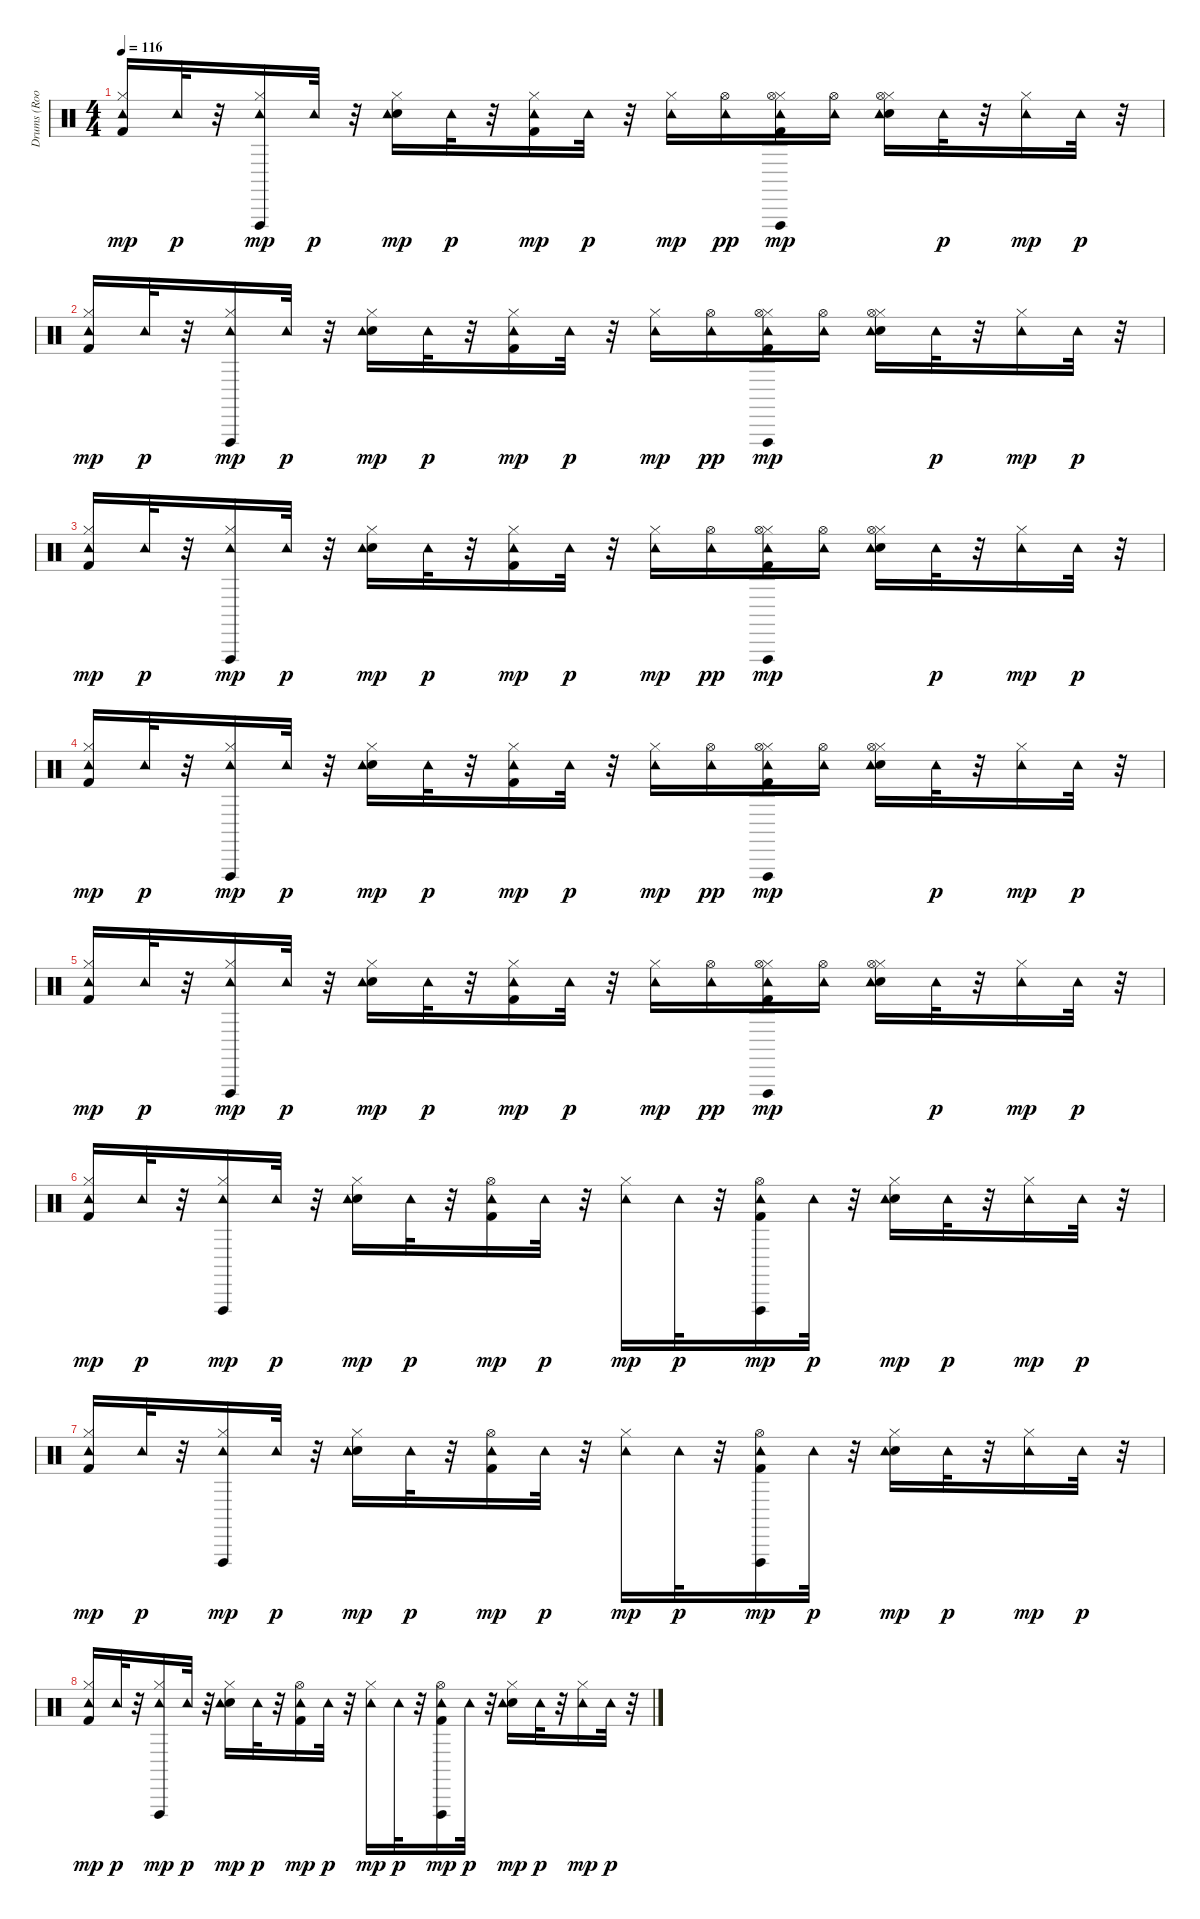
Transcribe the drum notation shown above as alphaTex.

\track ("Drums (Room Kit)    " "Drums (Roo") {instrument percussion}
\staff {score}
\articulation defaults
\ts (4 4)
\tempo 116
\clef neutral
\ks c
("Hi-Hat (closed)" "Kick (hit) 2" "Tambourine (hit)").16{dy mp} "Tambourine (hit)".32{dy p} r.32 ("Hi-Hat (closed)" "Tambourine (hit)" "Vibraslap (hit)").16{dy mp} "Tambourine (hit)".32{dy p} r.32 ("Hi-Hat (closed)" "Snare (hit) 2" "Tambourine (hit)").16{dy mp} "Tambourine (hit)".32{dy p} r.32 ("Hi-Hat (closed)" "Kick (hit) 2" "Tambourine (hit)").16{dy mp} "Tambourine (hit)".32{dy p} r.32 ("Hi-Hat (closed)" "Tambourine (hit)").16{dy mp} ("Tambourine (hit)" "Hi-Hat (open)").16{dy pp} ("Hi-Hat (closed)" "Kick (hit) 2" "Tambourine (hit)" "Hi-Hat (open)" "Vibraslap (hit)").16{dy mp} ("Tambourine (hit)" "Hi-Hat (open)").16 ("Hi-Hat (closed)" "Snare (hit) 2" "Tambourine (hit)" "Hi-Hat (open)").16 "Tambourine (hit)".32{dy p} r.32 ("Hi-Hat (closed)" "Tambourine (hit)").16{dy mp} "Tambourine (hit)".32{dy p} r.32 |
("Kick (hit) 2" "Hi-Hat (closed)" "Tambourine (hit)").16{dy mp} "Tambourine (hit)".32{dy p} r.32 ("Hi-Hat (closed)" "Tambourine (hit)" "Vibraslap (hit)").16{dy mp} "Tambourine (hit)".32{dy p} r.32 ("Snare (hit) 2" "Hi-Hat (closed)" "Tambourine (hit)").16{dy mp} "Tambourine (hit)".32{dy p} r.32 ("Kick (hit) 2" "Hi-Hat (closed)" "Tambourine (hit)").16{dy mp} "Tambourine (hit)".32{dy p} r.32 ("Hi-Hat (closed)" "Tambourine (hit)").16{dy mp} ("Tambourine (hit)" "Hi-Hat (open)").16{dy pp} ("Kick (hit) 2" "Hi-Hat (closed)" "Tambourine (hit)" "Hi-Hat (open)" "Vibraslap (hit)").16{dy mp} ("Tambourine (hit)" "Hi-Hat (open)").16 ("Snare (hit) 2" "Hi-Hat (closed)" "Tambourine (hit)" "Hi-Hat (open)").16 "Tambourine (hit)".32{dy p} r.32 ("Hi-Hat (closed)" "Tambourine (hit)").16{dy mp} "Tambourine (hit)".32{dy p} r.32 |
("Hi-Hat (closed)" "Kick (hit) 2" "Tambourine (hit)").16{dy mp} "Tambourine (hit)".32{dy p} r.32 ("Hi-Hat (closed)" "Tambourine (hit)" "Vibraslap (hit)").16{dy mp} "Tambourine (hit)".32{dy p} r.32 ("Hi-Hat (closed)" "Snare (hit) 2" "Tambourine (hit)").16{dy mp} "Tambourine (hit)".32{dy p} r.32 ("Hi-Hat (closed)" "Kick (hit) 2" "Tambourine (hit)").16{dy mp} "Tambourine (hit)".32{dy p} r.32 ("Hi-Hat (closed)" "Tambourine (hit)").16{dy mp} ("Tambourine (hit)" "Hi-Hat (open)").16{dy pp} ("Hi-Hat (closed)" "Kick (hit) 2" "Tambourine (hit)" "Hi-Hat (open)" "Vibraslap (hit)").16{dy mp} ("Tambourine (hit)" "Hi-Hat (open)").16 ("Hi-Hat (closed)" "Snare (hit) 2" "Tambourine (hit)" "Hi-Hat (open)").16 "Tambourine (hit)".32{dy p} r.32 ("Hi-Hat (closed)" "Tambourine (hit)").16{dy mp} "Tambourine (hit)".32{dy p} r.32 |
("Kick (hit) 2" "Hi-Hat (closed)" "Tambourine (hit)").16{dy mp} "Tambourine (hit)".32{dy p} r.32 ("Hi-Hat (closed)" "Tambourine (hit)" "Vibraslap (hit)").16{dy mp} "Tambourine (hit)".32{dy p} r.32 ("Snare (hit) 2" "Hi-Hat (closed)" "Tambourine (hit)").16{dy mp} "Tambourine (hit)".32{dy p} r.32 ("Kick (hit) 2" "Hi-Hat (closed)" "Tambourine (hit)").16{dy mp} "Tambourine (hit)".32{dy p} r.32 ("Hi-Hat (closed)" "Tambourine (hit)").16{dy mp} ("Tambourine (hit)" "Hi-Hat (open)").16{dy pp} ("Kick (hit) 2" "Hi-Hat (closed)" "Tambourine (hit)" "Hi-Hat (open)" "Vibraslap (hit)").16{dy mp} ("Tambourine (hit)" "Hi-Hat (open)").16 ("Snare (hit) 2" "Hi-Hat (closed)" "Tambourine (hit)" "Hi-Hat (open)").16 "Tambourine (hit)".32{dy p} r.32 ("Hi-Hat (closed)" "Tambourine (hit)").16{dy mp} "Tambourine (hit)".32{dy p} r.32 |
("Hi-Hat (closed)" "Kick (hit) 2" "Tambourine (hit)").16{dy mp} "Tambourine (hit)".32{dy p} r.32 ("Hi-Hat (closed)" "Tambourine (hit)" "Vibraslap (hit)").16{dy mp} "Tambourine (hit)".32{dy p} r.32 ("Hi-Hat (closed)" "Snare (hit) 2" "Tambourine (hit)").16{dy mp} "Tambourine (hit)".32{dy p} r.32 ("Hi-Hat (closed)" "Kick (hit) 2" "Tambourine (hit)").16{dy mp} "Tambourine (hit)".32{dy p} r.32 ("Hi-Hat (closed)" "Tambourine (hit)").16{dy mp} ("Tambourine (hit)" "Hi-Hat (open)").16{dy pp} ("Hi-Hat (closed)" "Kick (hit) 2" "Tambourine (hit)" "Hi-Hat (open)" "Vibraslap (hit)").16{dy mp} ("Tambourine (hit)" "Hi-Hat (open)").16 ("Hi-Hat (closed)" "Snare (hit) 2" "Tambourine (hit)" "Hi-Hat (open)").16 "Tambourine (hit)".32{dy p} r.32 ("Hi-Hat (closed)" "Tambourine (hit)").16{dy mp} "Tambourine (hit)".32{dy p} r.32 |
("Kick (hit) 2" "Hi-Hat (closed)" "Tambourine (hit)").16{dy mp} "Tambourine (hit)".32{dy p} r.32 ("Hi-Hat (closed)" "Tambourine (hit)" "Vibraslap (hit)").16{dy mp} "Tambourine (hit)".32{dy p} r.32 ("Snare (hit) 2" "Hi-Hat (closed)" "Tambourine (hit)").16{dy mp} "Tambourine (hit)".32{dy p} r.32 ("Kick (hit) 2" "Tambourine (hit)" "Hi-Hat (open)").16{dy mp} "Tambourine (hit)".32{dy p} r.32 ("Hi-Hat (closed)" "Tambourine (hit)").16{dy mp} "Tambourine (hit)".32{dy p} r.32 ("Kick (hit) 2" "Tambourine (hit)" "Vibraslap (hit)" "Hi-Hat (open)").16{dy mp} "Tambourine (hit)".32{dy p} r.32 ("Snare (hit) 2" "Hi-Hat (closed)" "Tambourine (hit)").16{dy mp} "Tambourine (hit)".32{dy p} r.32 ("Hi-Hat (closed)" "Tambourine (hit)").16{dy mp} "Tambourine (hit)".32{dy p} r.32 |
("Hi-Hat (closed)" "Kick (hit) 2" "Tambourine (hit)").16{dy mp} "Tambourine (hit)".32{dy p} r.32 ("Hi-Hat (closed)" "Tambourine (hit)" "Vibraslap (hit)").16{dy mp} "Tambourine (hit)".32{dy p} r.32 ("Hi-Hat (closed)" "Snare (hit) 2" "Tambourine (hit)").16{dy mp} "Tambourine (hit)".32{dy p} r.32 ("Kick (hit) 2" "Tambourine (hit)" "Hi-Hat (open)").16{dy mp} "Tambourine (hit)".32{dy p} r.32 ("Hi-Hat (closed)" "Tambourine (hit)").16{dy mp} "Tambourine (hit)".32{dy p} r.32 ("Kick (hit) 2" "Tambourine (hit)" "Vibraslap (hit)" "Hi-Hat (open)").16{dy mp} "Tambourine (hit)".32{dy p} r.32 ("Hi-Hat (closed)" "Snare (hit) 2" "Tambourine (hit)").16{dy mp} "Tambourine (hit)".32{dy p} r.32 ("Hi-Hat (closed)" "Tambourine (hit)").16{dy mp} "Tambourine (hit)".32{dy p} r.32 |
("Kick (hit) 2" "Hi-Hat (closed)" "Tambourine (hit)").16{dy mp} "Tambourine (hit)".32{dy p} r.32 ("Hi-Hat (closed)" "Tambourine (hit)" "Vibraslap (hit)").16{dy mp} "Tambourine (hit)".32{dy p} r.32 ("Snare (hit) 2" "Hi-Hat (closed)" "Tambourine (hit)").16{dy mp} "Tambourine (hit)".32{dy p} r.32 ("Kick (hit) 2" "Tambourine (hit)" "Hi-Hat (open)").16{dy mp} "Tambourine (hit)".32{dy p} r.32 ("Hi-Hat (closed)" "Tambourine (hit)").16{dy mp} "Tambourine (hit)".32{dy p} r.32 ("Kick (hit) 2" "Tambourine (hit)" "Vibraslap (hit)" "Hi-Hat (open)").16{dy mp} "Tambourine (hit)".32{dy p} r.32 ("Snare (hit) 2" "Hi-Hat (closed)" "Tambourine (hit)").16{dy mp} "Tambourine (hit)".32{dy p} r.32 ("Hi-Hat (closed)" "Tambourine (hit)").16{dy mp} "Tambourine (hit)".32{dy p} r.32
